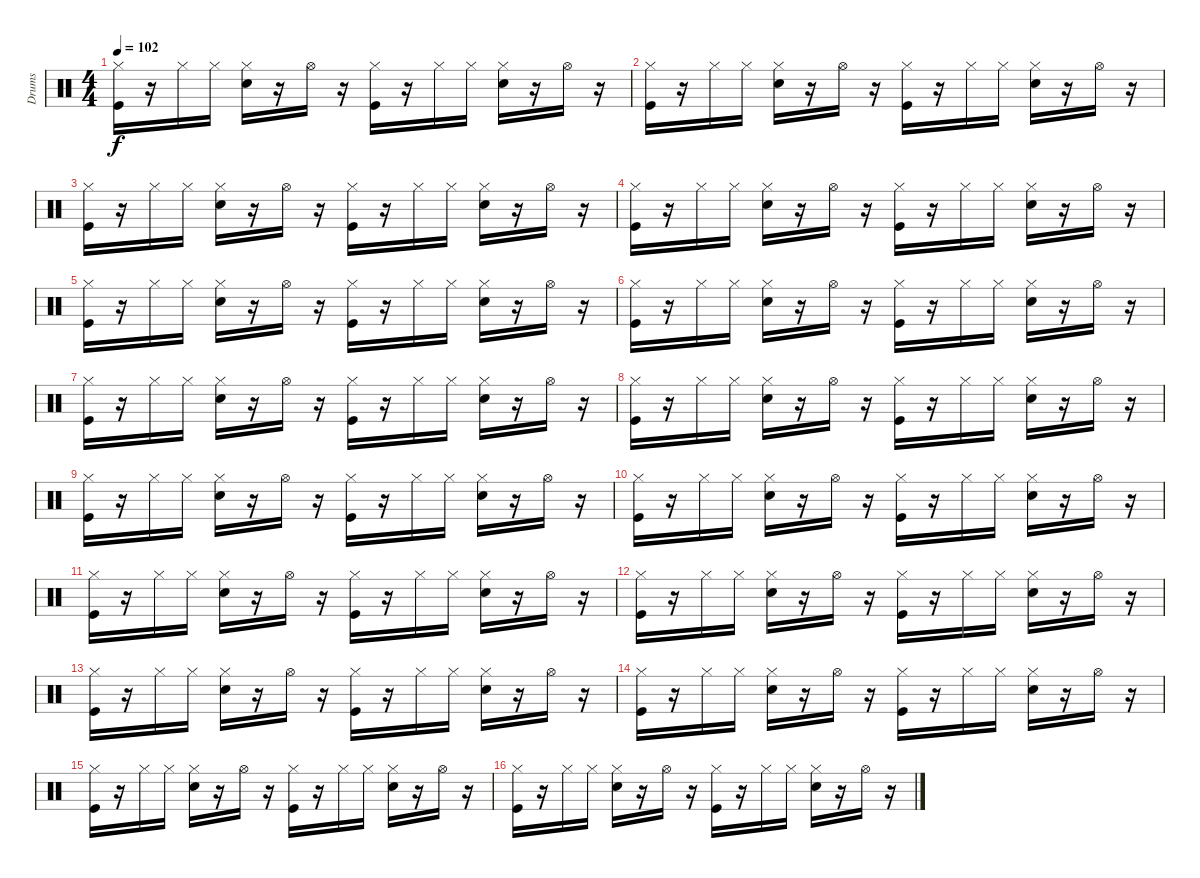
\track ("Drums" "Drums") {instrument percussion}
\staff {score}
\articulation defaults
\ts (4 4)
\tempo 102
\clef neutral
\ks c
("Hi-Hat (closed)" "Kick (hit)").16{dy f} r.16 "Hi-Hat (closed)".16 "Hi-Hat (closed)".16 ("Snare (hit) 2" "Hi-Hat (closed)").16 r.16 "Hi-Hat (open)".16 r.16 ("Hi-Hat (closed)" "Kick (hit)").16 r.16 "Hi-Hat (closed)".16 "Hi-Hat (closed)".16 ("Snare (hit) 2" "Hi-Hat (closed)").16 r.16 "Hi-Hat (open)".16 r.16 |
("Hi-Hat (closed)" "Kick (hit)").16 r.16 "Hi-Hat (closed)".16 "Hi-Hat (closed)".16 ("Hi-Hat (closed)" "Snare (hit) 2").16 r.16 "Hi-Hat (open)".16 r.16 ("Hi-Hat (closed)" "Kick (hit)").16 r.16 "Hi-Hat (closed)".16 "Hi-Hat (closed)".16 ("Hi-Hat (closed)" "Snare (hit) 2").16 r.16 "Hi-Hat (open)".16 r.16 |
("Hi-Hat (closed)" "Kick (hit)").16 r.16 "Hi-Hat (closed)".16 "Hi-Hat (closed)".16 ("Snare (hit) 2" "Hi-Hat (closed)").16 r.16 "Hi-Hat (open)".16 r.16 ("Hi-Hat (closed)" "Kick (hit)").16 r.16 "Hi-Hat (closed)".16 "Hi-Hat (closed)".16 ("Snare (hit) 2" "Hi-Hat (closed)").16 r.16 "Hi-Hat (open)".16 r.16 |
("Hi-Hat (closed)" "Kick (hit)").16 r.16 "Hi-Hat (closed)".16 "Hi-Hat (closed)".16 ("Hi-Hat (closed)" "Snare (hit) 2").16 r.16 "Hi-Hat (open)".16 r.16 ("Hi-Hat (closed)" "Kick (hit)").16 r.16 "Hi-Hat (closed)".16 "Hi-Hat (closed)".16 ("Hi-Hat (closed)" "Snare (hit) 2").16 r.16 "Hi-Hat (open)".16 r.16 |
("Hi-Hat (closed)" "Kick (hit)").16 r.16 "Hi-Hat (closed)".16 "Hi-Hat (closed)".16 ("Snare (hit) 2" "Hi-Hat (closed)").16 r.16 "Hi-Hat (open)".16 r.16 ("Hi-Hat (closed)" "Kick (hit)").16 r.16 "Hi-Hat (closed)".16 "Hi-Hat (closed)".16 ("Snare (hit) 2" "Hi-Hat (closed)").16 r.16 "Hi-Hat (open)".16 r.16 |
("Hi-Hat (closed)" "Kick (hit)").16 r.16 "Hi-Hat (closed)".16 "Hi-Hat (closed)".16 ("Hi-Hat (closed)" "Snare (hit) 2").16 r.16 "Hi-Hat (open)".16 r.16 ("Hi-Hat (closed)" "Kick (hit)").16 r.16 "Hi-Hat (closed)".16 "Hi-Hat (closed)".16 ("Hi-Hat (closed)" "Snare (hit) 2").16 r.16 "Hi-Hat (open)".16 r.16 |
("Hi-Hat (closed)" "Kick (hit)").16 r.16 "Hi-Hat (closed)".16 "Hi-Hat (closed)".16 ("Snare (hit) 2" "Hi-Hat (closed)").16 r.16 "Hi-Hat (open)".16 r.16 ("Hi-Hat (closed)" "Kick (hit)").16 r.16 "Hi-Hat (closed)".16 "Hi-Hat (closed)".16 ("Snare (hit) 2" "Hi-Hat (closed)").16 r.16 "Hi-Hat (open)".16 r.16 |
("Hi-Hat (closed)" "Kick (hit)").16 r.16 "Hi-Hat (closed)".16 "Hi-Hat (closed)".16 ("Hi-Hat (closed)" "Snare (hit) 2").16 r.16 "Hi-Hat (open)".16 r.16 ("Hi-Hat (closed)" "Kick (hit)").16 r.16 "Hi-Hat (closed)".16 "Hi-Hat (closed)".16 ("Hi-Hat (closed)" "Snare (hit) 2").16 r.16 "Hi-Hat (open)".16 r.16 |
("Hi-Hat (closed)" "Kick (hit)").16 r.16 "Hi-Hat (closed)".16 "Hi-Hat (closed)".16 ("Snare (hit) 2" "Hi-Hat (closed)").16 r.16 "Hi-Hat (open)".16 r.16 ("Hi-Hat (closed)" "Kick (hit)").16 r.16 "Hi-Hat (closed)".16 "Hi-Hat (closed)".16 ("Snare (hit) 2" "Hi-Hat (closed)").16 r.16 "Hi-Hat (open)".16 r.16 |
("Hi-Hat (closed)" "Kick (hit)").16 r.16 "Hi-Hat (closed)".16 "Hi-Hat (closed)".16 ("Hi-Hat (closed)" "Snare (hit) 2").16 r.16 "Hi-Hat (open)".16 r.16 ("Hi-Hat (closed)" "Kick (hit)").16 r.16 "Hi-Hat (closed)".16 "Hi-Hat (closed)".16 ("Hi-Hat (closed)" "Snare (hit) 2").16 r.16 "Hi-Hat (open)".16 r.16 |
("Hi-Hat (closed)" "Kick (hit)").16 r.16 "Hi-Hat (closed)".16 "Hi-Hat (closed)".16 ("Snare (hit) 2" "Hi-Hat (closed)").16 r.16 "Hi-Hat (open)".16 r.16 ("Hi-Hat (closed)" "Kick (hit)").16 r.16 "Hi-Hat (closed)".16 "Hi-Hat (closed)".16 ("Snare (hit) 2" "Hi-Hat (closed)").16 r.16 "Hi-Hat (open)".16 r.16 |
("Hi-Hat (closed)" "Kick (hit)").16 r.16 "Hi-Hat (closed)".16 "Hi-Hat (closed)".16 ("Hi-Hat (closed)" "Snare (hit) 2").16 r.16 "Hi-Hat (open)".16 r.16 ("Hi-Hat (closed)" "Kick (hit)").16 r.16 "Hi-Hat (closed)".16 "Hi-Hat (closed)".16 ("Hi-Hat (closed)" "Snare (hit) 2").16 r.16 "Hi-Hat (open)".16 r.16 |
("Hi-Hat (closed)" "Kick (hit)").16 r.16 "Hi-Hat (closed)".16 "Hi-Hat (closed)".16 ("Snare (hit) 2" "Hi-Hat (closed)").16 r.16 "Hi-Hat (open)".16 r.16 ("Hi-Hat (closed)" "Kick (hit)").16 r.16 "Hi-Hat (closed)".16 "Hi-Hat (closed)".16 ("Snare (hit) 2" "Hi-Hat (closed)").16 r.16 "Hi-Hat (open)".16 r.16 |
("Hi-Hat (closed)" "Kick (hit)").16 r.16 "Hi-Hat (closed)".16 "Hi-Hat (closed)".16 ("Hi-Hat (closed)" "Snare (hit) 2").16 r.16 "Hi-Hat (open)".16 r.16 ("Hi-Hat (closed)" "Kick (hit)").16 r.16 "Hi-Hat (closed)".16 "Hi-Hat (closed)".16 ("Hi-Hat (closed)" "Snare (hit) 2").16 r.16 "Hi-Hat (open)".16 r.16 |
("Hi-Hat (closed)" "Kick (hit)").16 r.16 "Hi-Hat (closed)".16 "Hi-Hat (closed)".16 ("Snare (hit) 2" "Hi-Hat (closed)").16 r.16 "Hi-Hat (open)".16 r.16 ("Hi-Hat (closed)" "Kick (hit)").16 r.16 "Hi-Hat (closed)".16 "Hi-Hat (closed)".16 ("Snare (hit) 2" "Hi-Hat (closed)").16 r.16 "Hi-Hat (open)".16 r.16 |
("Hi-Hat (closed)" "Kick (hit)").16 r.16 "Hi-Hat (closed)".16 "Hi-Hat (closed)".16 ("Hi-Hat (closed)" "Snare (hit) 2").16 r.16 "Hi-Hat (open)".16 r.16 ("Hi-Hat (closed)" "Kick (hit)").16 r.16 "Hi-Hat (closed)".16 "Hi-Hat (closed)".16 ("Hi-Hat (closed)" "Snare (hit) 2").16 r.16 "Hi-Hat (open)".16 r.16
